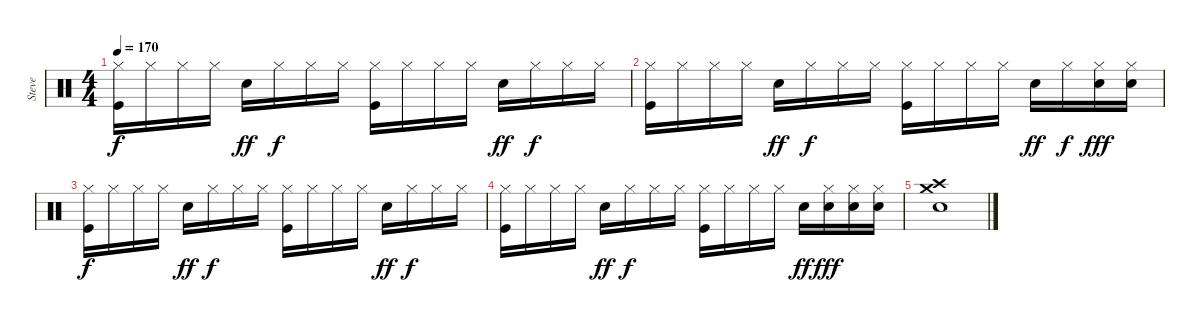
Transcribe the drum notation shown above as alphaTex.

\track ("Steve" "Steve") {instrument percussion}
\staff {score}
\articulation defaults
\ts (4 4)
\tempo 170
\clef neutral
\ks c
("Hi-Hat (closed)" "Kick (hit)").16{dy f} "Hi-Hat (closed)".16 "Hi-Hat (closed)".16 "Hi-Hat (closed)".16 "Electric Snare (hit)".16{dy ff} "Hi-Hat (closed)".16{dy f} "Hi-Hat (closed)".16 "Hi-Hat (closed)".16 ("Hi-Hat (closed)" "Kick (hit)").16 "Hi-Hat (closed)".16 "Hi-Hat (closed)".16 "Hi-Hat (closed)".16 "Electric Snare (hit)".16{dy ff} "Hi-Hat (closed)".16{dy f} "Hi-Hat (closed)".16 "Hi-Hat (closed)".16 |
("Hi-Hat (closed)" "Kick (hit)").16 "Hi-Hat (closed)".16 "Hi-Hat (closed)".16 "Hi-Hat (closed)".16 "Electric Snare (hit)".16{dy ff} "Hi-Hat (closed)".16{dy f} "Hi-Hat (closed)".16 "Hi-Hat (closed)".16 ("Hi-Hat (closed)" "Kick (hit)").16 "Hi-Hat (closed)".16 "Hi-Hat (closed)".16 "Hi-Hat (closed)".16 "Electric Snare (hit)".16{dy ff} "Hi-Hat (closed)".16{dy f} ("Hi-Hat (closed)" "Electric Snare (hit)").16{dy fff} ("Hi-Hat (closed)" "Electric Snare (hit)").16 |
("Hi-Hat (closed)" "Kick (hit)").16{dy f} "Hi-Hat (closed)".16 "Hi-Hat (closed)".16 "Hi-Hat (closed)".16 "Electric Snare (hit)".16{dy ff} "Hi-Hat (closed)".16{dy f} "Hi-Hat (closed)".16 "Hi-Hat (closed)".16 ("Hi-Hat (closed)" "Kick (hit)").16 "Hi-Hat (closed)".16 "Hi-Hat (closed)".16 "Hi-Hat (closed)".16 "Electric Snare (hit)".16{dy ff} "Hi-Hat (closed)".16{dy f} "Hi-Hat (closed)".16 "Hi-Hat (closed)".16 |
("Hi-Hat (closed)" "Kick (hit)").16 "Hi-Hat (closed)".16 "Hi-Hat (closed)".16 "Hi-Hat (closed)".16 "Electric Snare (hit)".16{dy ff} "Hi-Hat (closed)".16{dy f} "Hi-Hat (closed)".16 "Hi-Hat (closed)".16 ("Hi-Hat (closed)" "Kick (hit)").16 "Hi-Hat (closed)".16 "Hi-Hat (closed)".16 "Hi-Hat (closed)".16 "Electric Snare (hit)".16{dy ff} ("Hi-Hat (closed)" "Electric Snare (hit)").16{dy fff} ("Hi-Hat (closed)" "Electric Snare (hit)").16 ("Hi-Hat (closed)" "Electric Snare (hit)").16 |
("Crash high (hit)" "Crash medium (hit)" "Electric Snare (hit)").1
